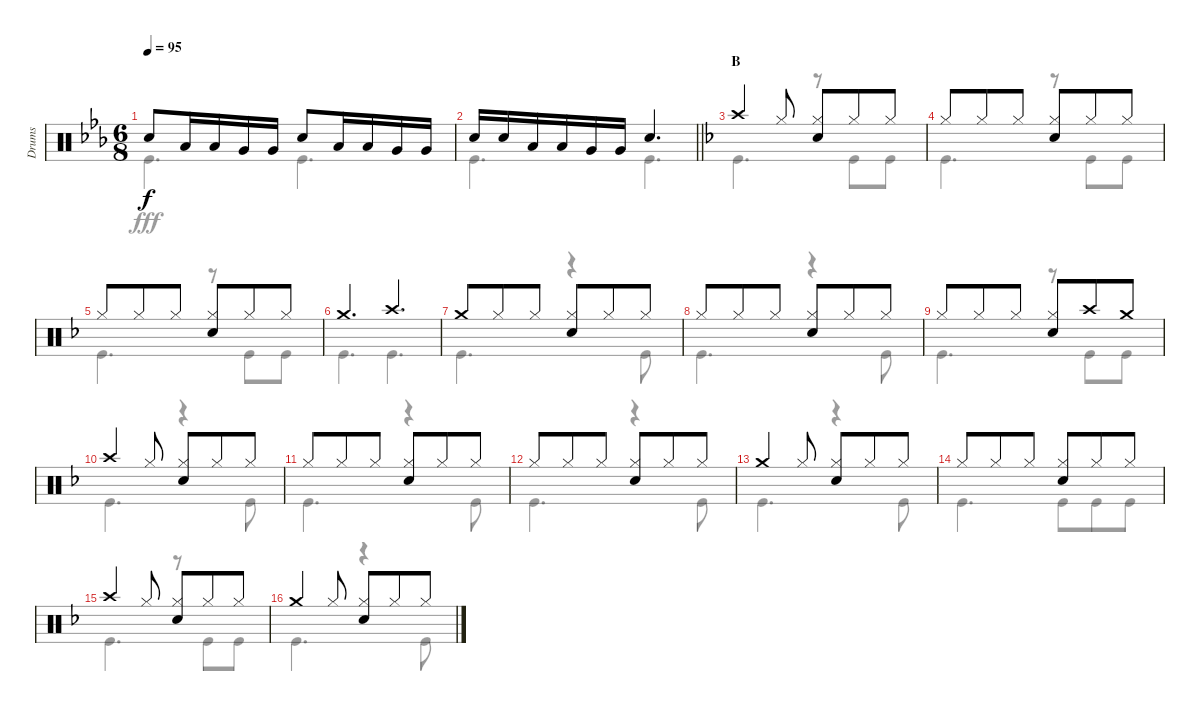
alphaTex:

\track ("Drums" "Drums") {instrument percussion}
\staff {score}
\articulation defaults
\voice
\ts (6 8)
\tempo 95
\clef neutral
\ks eb "Snare (hit) 2".8{dy f} "Low Tom (hit)".16 "Low Tom (hit)".16 "Very Low Tom (hit)".16 "Very Low Tom (hit)".16 "Snare (hit) 2".8 "Low Tom (hit)".16 "Low Tom (hit)".16 "Very Low Tom (hit)".16 "Very Low Tom (hit)".16
|
\barLineRight lightlight "Snare (hit) 2".16 "Snare (hit) 2".16 "Low Tom (hit)".16 "Low Tom (hit)".16 "Very Low Tom (hit)".16 "Very Low Tom (hit)".16 "Snare (hit) 2".4{d}
|
\section ("" "B")
\ks f "Crash high (hit)".4 "Hi-Hat (closed)".8
("Hi-Hat (closed)" "Snare (hit) 2").8 "Hi-Hat (closed)".8 "Hi-Hat (closed)".8 |
"Hi-Hat (closed)".8 "Hi-Hat (closed)".8 "Hi-Hat (closed)".8 ("Hi-Hat (closed)" "Snare (hit) 2").8 "Hi-Hat (closed)".8 "Hi-Hat (closed)".8 |
"Hi-Hat (closed)".8 "Hi-Hat (closed)".8 "Hi-Hat (closed)".8 ("Hi-Hat (closed)" "Snare (hit) 2").8 "Hi-Hat (closed)".8 "Hi-Hat (closed)".8 |
"Crash medium (hit)".4{d} "Crash high (hit)".4{d} |
"Crash medium (hit)".8 "Hi-Hat (closed)".8 "Hi-Hat (closed)".8 ("Hi-Hat (closed)" "Snare (hit) 2").8 "Hi-Hat (closed)".8 "Hi-Hat (closed)".8 |
"Hi-Hat (closed)".8 "Hi-Hat (closed)".8 "Hi-Hat (closed)".8 ("Hi-Hat (closed)" "Snare (hit) 2").8 "Hi-Hat (closed)".8 "Hi-Hat (closed)".8 |
"Hi-Hat (closed)".8 "Hi-Hat (closed)".8 "Hi-Hat (closed)".8 ("Hi-Hat (closed)" "Snare (hit) 2").8 "Crash high (hit)".8 "Crash medium (hit)".8 |
"Crash high (hit)".4 "Hi-Hat (closed)".8 ("Hi-Hat (closed)" "Snare (hit) 2").8 "Hi-Hat (closed)".8 "Hi-Hat (closed)".8 |
"Hi-Hat (closed)".8 "Hi-Hat (closed)".8 "Hi-Hat (closed)".8 ("Hi-Hat (closed)" "Snare (hit) 2").8 "Hi-Hat (closed)".8 "Hi-Hat (closed)".8 |
"Hi-Hat (closed)".8 "Hi-Hat (closed)".8 "Hi-Hat (closed)".8 ("Hi-Hat (closed)" "Snare (hit) 2").8 "Hi-Hat (closed)".8 "Hi-Hat (closed)".8 |
"Crash medium (hit)".4 "Hi-Hat (closed)".8 ("Hi-Hat (closed)" "Snare (hit) 2").8 "Hi-Hat (closed)".8 "Hi-Hat (closed)".8 |
"Hi-Hat (closed)".8 "Hi-Hat (closed)".8 "Hi-Hat (closed)".8 ("Hi-Hat (closed)" "Snare (hit) 2").8 "Hi-Hat (closed)".8 "Hi-Hat (closed)".8 |
"Crash high (hit)".4 "Hi-Hat (closed)".8 ("Hi-Hat (closed)" "Snare (hit) 2").8 "Hi-Hat (closed)".8 "Hi-Hat (closed)".8 |
"Crash medium (hit)".4 "Hi-Hat (closed)".8 ("Hi-Hat (closed)" "Snare (hit) 2").8 "Hi-Hat (closed)".8 "Hi-Hat (closed)".8
\voice
\clef neutral
\ottava regular
\simile none
\ks eb "Kick (hit)".4{d dy fff} "Kick (hit)".4{d}
|
\barLineRight lightlight "Kick (hit)".4{d} "Kick (hit)".4{d}
|
\ks f "Kick (hit)".4{d}
r.8 "Kick (hit)".8 "Kick (hit)".8 |
"Kick (hit)".4{d} r.8 "Kick (hit)".8 "Kick (hit)".8 |
"Kick (hit)".4{d} r.8 "Kick (hit)".8 "Kick (hit)".8 |
"Kick (hit)".4{d} "Kick (hit)".4{d} |
"Kick (hit)".4{d} r.4 "Kick (hit)".8 |
"Kick (hit)".4{d} r.4 "Kick (hit)".8 |
"Kick (hit)".4{d} r.8 "Kick (hit)".8 "Kick (hit)".8 |
"Kick (hit)".4{d} r.4 "Kick (hit)".8 |
"Kick (hit)".4{d} r.4 "Kick (hit)".8 |
"Kick (hit)".4{d} r.4 "Kick (hit)".8 |
"Kick (hit)".4{d} r.4 "Kick (hit)".8 |
"Kick (hit)".4{d} "Kick (hit)".8 "Kick (hit)".8 "Kick (hit)".8 |
"Kick (hit)".4{d} r.8 "Kick (hit)".8 "Kick (hit)".8 |
"Kick (hit)".4{d} r.4 "Kick (hit)".8
